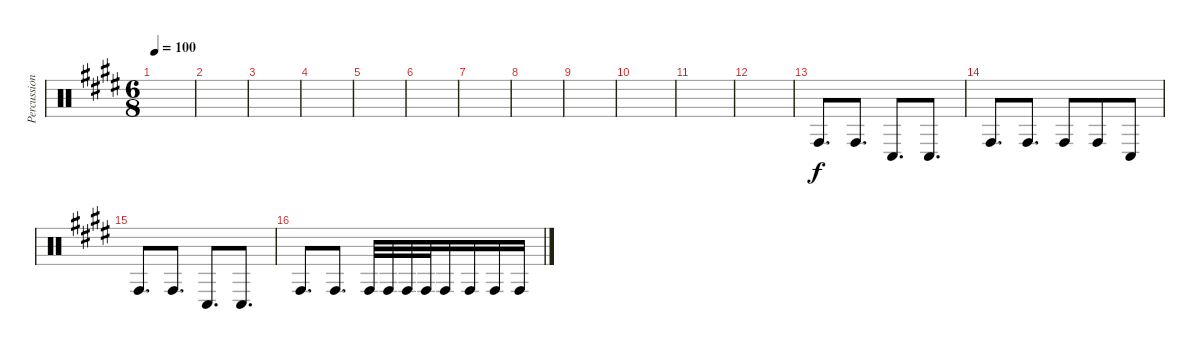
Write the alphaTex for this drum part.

\track ("Percussion" "Percussion") {instrument percussion}
\staff {score}
\articulation defaults
\ts (6 8)
\tempo 100
\clef neutral
\ks c#minor
|
|
|
|
|
|
|
|
|
|
|
|
"Conga high (hit)".8{d dy f} "Conga high (hit)".8{d} "Conga low (hit)".8{d} "Conga low (hit)".8{d} |
"Conga high (hit)".8{d} "Conga high (hit)".8{d} "Conga high (hit)".8 "Conga high (hit)".8 "Conga low (hit)".8 |
"Conga high (hit)".8{d} "Conga high (hit)".8{d} "Conga low (hit)".8{d} "Conga low (hit)".8{d} |
"Conga high (hit)".8{d} "Conga high (hit)".8{d} "Conga high (hit)".32 "Conga high (hit)".32 "Conga high (hit)".32 "Conga high (hit)".32 "Conga high (hit)".16 "Conga high (hit)".16 "Conga high (hit)".16 "Conga high (hit)".16
